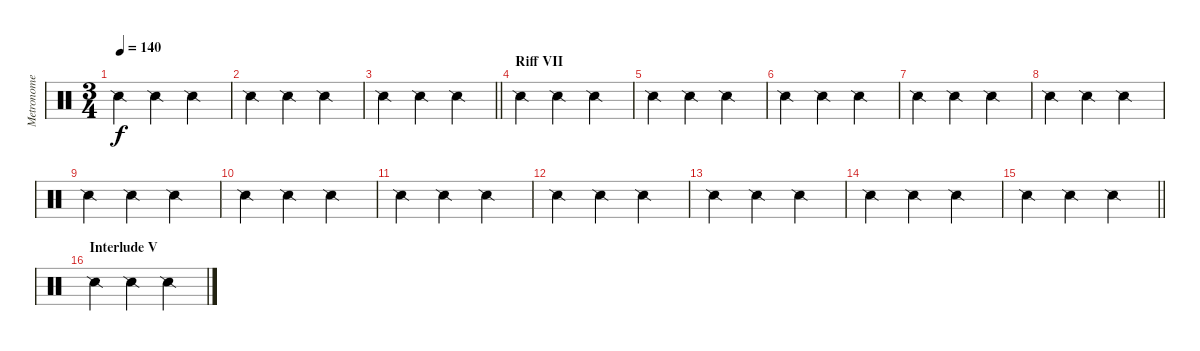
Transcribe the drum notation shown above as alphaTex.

\track ("Metronome" "Metronome") {instrument percussion}
\staff {score}
\articulation defaults
\ts (3 4)
\tempo 140
\clef neutral
\ks c "Snare (side stick) 2".4{dy f} "Snare (side stick) 2".4 "Snare (side stick) 2".4
|
"Snare (side stick) 2".4 "Snare (side stick) 2".4 "Snare (side stick) 2".4 |
\barLineRight lightlight "Snare (side stick) 2".4 "Snare (side stick) 2".4 "Snare (side stick) 2".4
|
\section ("" "Riff VII")
"Snare (side stick) 2".4 "Snare (side stick) 2".4 "Snare (side stick) 2".4 |
"Snare (side stick) 2".4 "Snare (side stick) 2".4 "Snare (side stick) 2".4 |
"Snare (side stick) 2".4 "Snare (side stick) 2".4 "Snare (side stick) 2".4 |
"Snare (side stick) 2".4 "Snare (side stick) 2".4 "Snare (side stick) 2".4 |
"Snare (side stick) 2".4 "Snare (side stick) 2".4 "Snare (side stick) 2".4 |
"Snare (side stick) 2".4 "Snare (side stick) 2".4 "Snare (side stick) 2".4 |
"Snare (side stick) 2".4 "Snare (side stick) 2".4 "Snare (side stick) 2".4 |
"Snare (side stick) 2".4 "Snare (side stick) 2".4 "Snare (side stick) 2".4 |
"Snare (side stick) 2".4 "Snare (side stick) 2".4 "Snare (side stick) 2".4 |
"Snare (side stick) 2".4 "Snare (side stick) 2".4 "Snare (side stick) 2".4 |
"Snare (side stick) 2".4 "Snare (side stick) 2".4 "Snare (side stick) 2".4 |
\barLineRight lightlight "Snare (side stick) 2".4 "Snare (side stick) 2".4 "Snare (side stick) 2".4
|
\section ("" "Interlude V")
"Snare (side stick) 2".4 "Snare (side stick) 2".4 "Snare (side stick) 2".4
